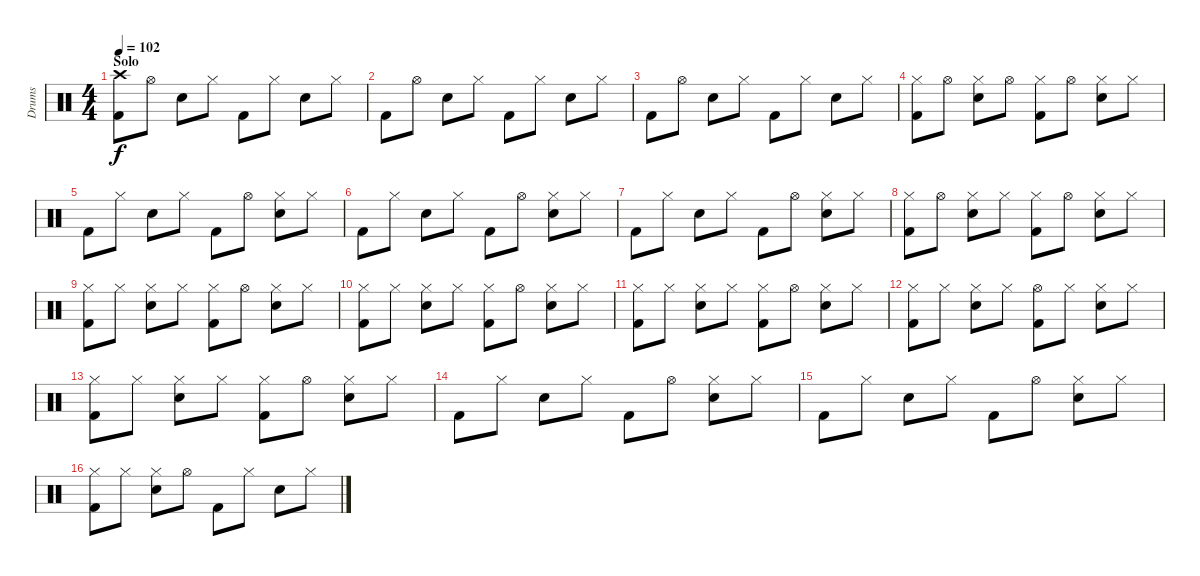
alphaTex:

\track ("Drums" "Drums") {instrument percussion}
\staff {score}
\articulation defaults
\ts (4 4)
\section ("" "Solo")
\tempo 102
\clef neutral
\ks c
("Crash high (hit)" "Kick (hit) 2").8{dy f} "Hi-Hat (open)".8 "Snare (hit) 2".8 "Hi-Hat (closed)".8 "Kick (hit) 2".8 "Hi-Hat (closed)".8 "Snare (hit) 2".8 "Hi-Hat (closed)".8 |
"Kick (hit) 2".8 "Hi-Hat (open)".8 "Snare (hit) 2".8 "Hi-Hat (closed)".8 "Kick (hit) 2".8 "Hi-Hat (closed)".8 "Snare (hit) 2".8 "Hi-Hat (closed)".8 |
"Kick (hit) 2".8 "Hi-Hat (open)".8 "Snare (hit) 2".8 "Hi-Hat (closed)".8 "Kick (hit) 2".8 "Hi-Hat (closed)".8 "Snare (hit) 2".8 "Hi-Hat (closed)".8 |
("Hi-Hat (closed)" "Kick (hit) 2").8 "Hi-Hat (open)".8 ("Hi-Hat (closed)" "Snare (hit) 2").8 "Hi-Hat (open)".8 ("Hi-Hat (closed)" "Kick (hit) 2").8 "Hi-Hat (open)".8 ("Hi-Hat (closed)" "Snare (hit) 2").8 "Hi-Hat (closed)".8 |
"Kick (hit) 2".8 "Hi-Hat (closed)".8 "Snare (hit) 2".8 "Hi-Hat (closed)".8 "Kick (hit) 2".8 "Hi-Hat (open)".8 ("Hi-Hat (closed)" "Snare (hit) 2").8 "Hi-Hat (closed)".8 |
"Kick (hit) 2".8 "Hi-Hat (closed)".8 "Snare (hit) 2".8 "Hi-Hat (closed)".8 "Kick (hit) 2".8 "Hi-Hat (open)".8 ("Hi-Hat (closed)" "Snare (hit) 2").8 "Hi-Hat (closed)".8 |
"Kick (hit) 2".8 "Hi-Hat (closed)".8 "Snare (hit) 2".8 "Hi-Hat (closed)".8 "Kick (hit) 2".8 "Hi-Hat (open)".8 ("Hi-Hat (closed)" "Snare (hit) 2").8 "Hi-Hat (closed)".8 |
("Hi-Hat (closed)" "Kick (hit) 2").8 "Hi-Hat (open)".8 ("Hi-Hat (closed)" "Snare (hit) 2").8 "Hi-Hat (closed)".8 ("Hi-Hat (closed)" "Kick (hit) 2").8 "Hi-Hat (open)".8 ("Hi-Hat (closed)" "Snare (hit) 2").8 "Hi-Hat (closed)".8 |
("Hi-Hat (closed)" "Kick (hit) 2").8 "Hi-Hat (closed)".8 ("Hi-Hat (closed)" "Snare (hit) 2").8 "Hi-Hat (closed)".8 ("Hi-Hat (closed)" "Kick (hit) 2").8 "Hi-Hat (open)".8 ("Hi-Hat (closed)" "Snare (hit) 2").8 "Hi-Hat (closed)".8 |
("Hi-Hat (closed)" "Kick (hit) 2").8 "Hi-Hat (closed)".8 ("Hi-Hat (closed)" "Snare (hit) 2").8 "Hi-Hat (closed)".8 ("Hi-Hat (closed)" "Kick (hit) 2").8 "Hi-Hat (open)".8 ("Hi-Hat (closed)" "Snare (hit) 2").8 "Hi-Hat (closed)".8 |
("Hi-Hat (closed)" "Kick (hit) 2").8 "Hi-Hat (closed)".8 ("Hi-Hat (closed)" "Snare (hit) 2").8 "Hi-Hat (closed)".8 ("Hi-Hat (closed)" "Kick (hit) 2").8 "Hi-Hat (open)".8 ("Hi-Hat (closed)" "Snare (hit) 2").8 "Hi-Hat (closed)".8 |
("Hi-Hat (closed)" "Kick (hit) 2").8 "Hi-Hat (closed)".8 ("Hi-Hat (closed)" "Snare (hit) 2").8 "Hi-Hat (closed)".8 ("Hi-Hat (open)" "Kick (hit) 2").8 "Hi-Hat (closed)".8 ("Hi-Hat (closed)" "Snare (hit) 2").8 "Hi-Hat (closed)".8 |
("Hi-Hat (closed)" "Kick (hit) 2").8 "Hi-Hat (closed)".8 ("Hi-Hat (closed)" "Snare (hit) 2").8 "Hi-Hat (closed)".8 ("Hi-Hat (closed)" "Kick (hit) 2").8 "Hi-Hat (open)".8 ("Hi-Hat (closed)" "Snare (hit) 2").8 "Hi-Hat (closed)".8 |
"Kick (hit) 2".8 "Hi-Hat (closed)".8 "Snare (hit) 2".8 "Hi-Hat (closed)".8 "Kick (hit) 2".8 "Hi-Hat (open)".8 ("Hi-Hat (closed)" "Snare (hit) 2").8 "Hi-Hat (closed)".8 |
"Kick (hit) 2".8 "Hi-Hat (closed)".8 "Snare (hit) 2".8 "Hi-Hat (closed)".8 "Kick (hit) 2".8 "Hi-Hat (open)".8 ("Hi-Hat (closed)" "Snare (hit) 2").8 "Hi-Hat (closed)".8 |
("Hi-Hat (closed)" "Kick (hit) 2").8 "Hi-Hat (closed)".8 ("Hi-Hat (closed)" "Snare (hit) 2").8 "Hi-Hat (open)".8 "Kick (hit) 2".8 "Hi-Hat (closed)".8 "Snare (hit) 2".8 "Hi-Hat (closed)".8
